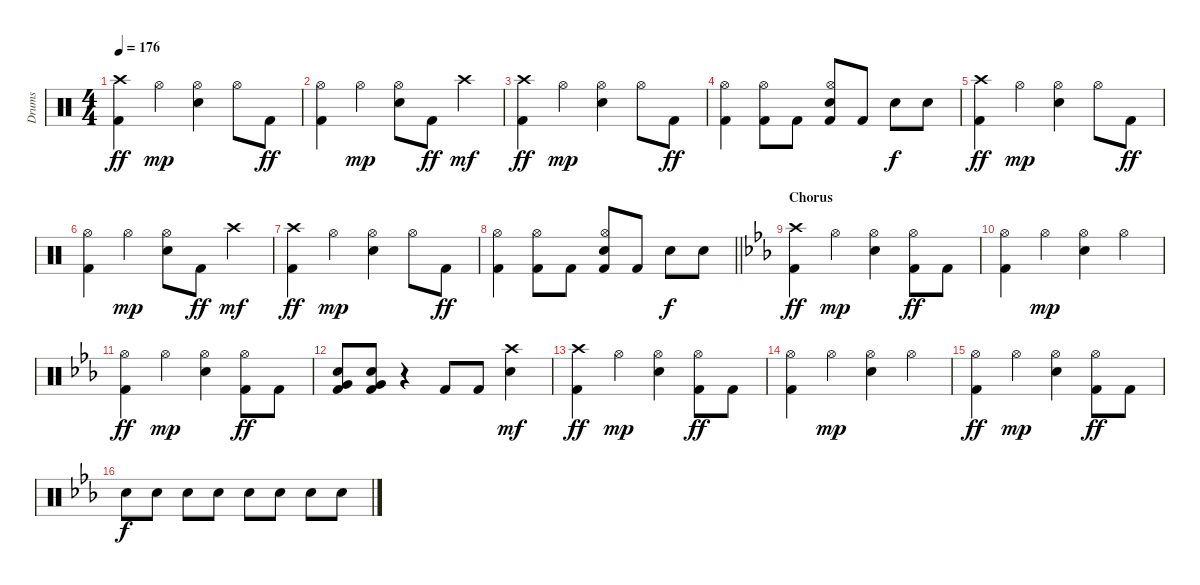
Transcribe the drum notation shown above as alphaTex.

\track ("Drums" "Drums") {instrument percussion}
\staff {score}
\articulation defaults
\ts (4 4)
\tempo 176
\clef neutral
\ks c
("Crash high (hit)" "Kick (hit) 2").4{dy ff} "Hi-Hat (open)".4{dy mp} ("Hi-Hat (open)" "Electric Snare (hit)").4 "Hi-Hat (open)".8 "Kick (hit) 2".8{dy ff} |
("Hi-Hat (open)" "Kick (hit) 2").4 "Hi-Hat (open)".4{dy mp} ("Hi-Hat (open)" "Electric Snare (hit)").8 "Kick (hit) 2".8{dy ff} "Crash high (hit)".4{dy mf} |
("Crash high (hit)" "Kick (hit) 2").4{dy ff} "Hi-Hat (open)".4{dy mp} ("Hi-Hat (open)" "Electric Snare (hit)").4 "Hi-Hat (open)".8 "Kick (hit) 2".8{dy ff} |
("Hi-Hat (open)" "Kick (hit) 2").4 ("Hi-Hat (open)" "Kick (hit) 2").8 "Kick (hit) 2".8 ("Hi-Hat (open)" "Electric Snare (hit)" "Kick (hit) 2").8 "Kick (hit) 2".8 "Electric Snare (hit)".8{dy f} "Electric Snare (hit)".8 |
("Crash high (hit)" "Kick (hit) 2").4{dy ff} "Hi-Hat (open)".4{dy mp} ("Hi-Hat (open)" "Electric Snare (hit)").4 "Hi-Hat (open)".8 "Kick (hit) 2".8{dy ff} |
("Hi-Hat (open)" "Kick (hit) 2").4 "Hi-Hat (open)".4{dy mp} ("Hi-Hat (open)" "Electric Snare (hit)").8 "Kick (hit) 2".8{dy ff} "Crash high (hit)".4{dy mf} |
("Crash high (hit)" "Kick (hit) 2").4{dy ff} "Hi-Hat (open)".4{dy mp} ("Hi-Hat (open)" "Electric Snare (hit)").4 "Hi-Hat (open)".8 "Kick (hit) 2".8{dy ff} |
\barLineRight lightlight
("Hi-Hat (open)" "Kick (hit) 2").4 ("Hi-Hat (open)" "Kick (hit) 2").8 "Kick (hit) 2".8 ("Hi-Hat (open)" "Electric Snare (hit)" "Kick (hit) 2").8 "Kick (hit) 2".8 "Electric Snare (hit)".8{dy f} "Electric Snare (hit)".8 |
\section ("" "Chorus")
\ks eb
("Crash high (hit)" "Kick (hit) 2").4{dy ff} "Hi-Hat (open)".4{dy mp} ("Hi-Hat (open)" "Electric Snare (hit)").4 ("Hi-Hat (open)" "Kick (hit) 2").8{dy ff} "Kick (hit) 2".8 |
("Hi-Hat (open)" "Kick (hit) 2").4 "Hi-Hat (open)".4{dy mp} ("Hi-Hat (open)" "Electric Snare (hit)").4 "Hi-Hat (open)".4 |
("Hi-Hat (open)" "Kick (hit) 2").4{dy ff} "Hi-Hat (open)".4{dy mp} ("Hi-Hat (open)" "Electric Snare (hit)").4 ("Hi-Hat (open)" "Kick (hit) 2").8{dy ff} "Kick (hit) 2".8 |
("Very Low Tom (hit)" "Electric Snare (hit)" "Kick (hit) 2").8 ("Very Low Tom (hit)" "Electric Snare (hit)" "Kick (hit) 2").8 r.4 "Kick (hit) 2".8 "Kick (hit) 2".8 ("Crash high (hit)" "Electric Snare (hit)").4{dy mf} |
("Crash high (hit)" "Kick (hit) 2").4{dy ff} "Hi-Hat (open)".4{dy mp} ("Hi-Hat (open)" "Electric Snare (hit)").4 ("Hi-Hat (open)" "Kick (hit) 2").8{dy ff} "Kick (hit) 2".8 |
("Hi-Hat (open)" "Kick (hit) 2").4 "Hi-Hat (open)".4{dy mp} ("Hi-Hat (open)" "Electric Snare (hit)").4 "Hi-Hat (open)".4 |
("Hi-Hat (open)" "Kick (hit) 2").4{dy ff} "Hi-Hat (open)".4{dy mp} ("Hi-Hat (open)" "Electric Snare (hit)").4 ("Hi-Hat (open)" "Kick (hit) 2").8{dy ff} "Kick (hit) 2".8 |
"Electric Snare (hit)".8{dy f} "Electric Snare (hit)".8 "Electric Snare (hit)".8 "Electric Snare (hit)".8 "Electric Snare (hit)".8 "Electric Snare (hit)".8 "Electric Snare (hit)".8 "Electric Snare (hit)".8
